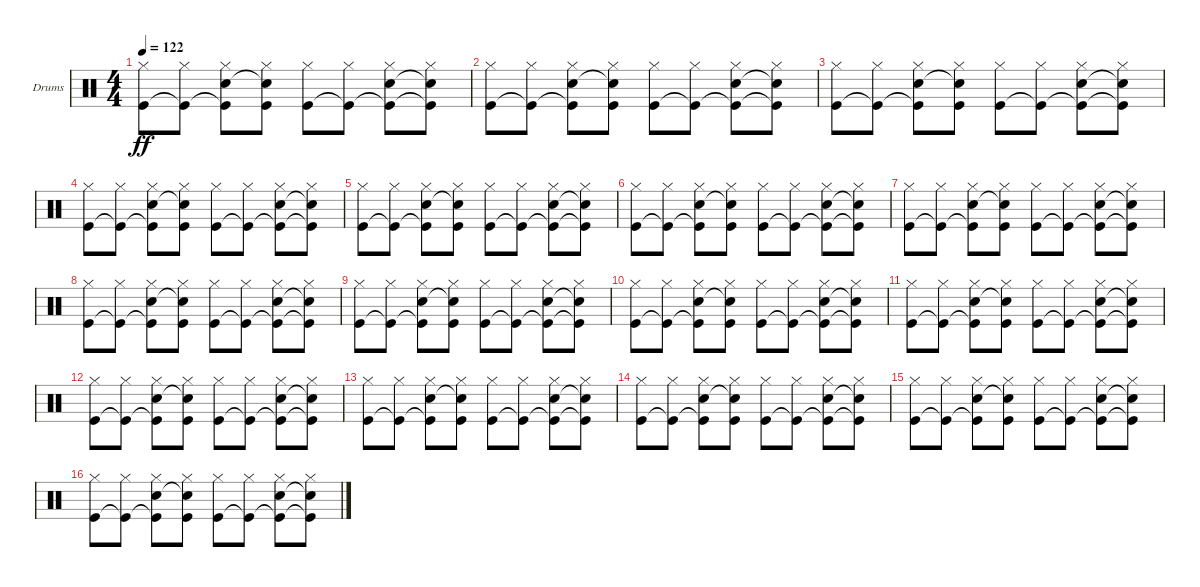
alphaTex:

\defaultSystemsLayout 4
\bracketExtendMode groupsimilarinstruments
\firstSystemTrackNameOrientation horizontal
\otherSystemsTrackNameOrientation horizontal
\track ("Drumkit" "Drums") {instrument percussion}
\staff {score}
\articulation defaults
\ts (4 4)
\tempo 122
\clef neutral
\ks c
("Hi-Hat (closed)" "Kick (hit)").8{dy ff} ("Hi-Hat (closed)" "Kick (hit)"{t}).8 ("Hi-Hat (closed)" "Kick (hit)"{t} "Snare (hit) 2").8 ("Hi-Hat (closed)" "Kick (hit)" "Snare (hit) 2"{t}).8 ("Hi-Hat (closed)" "Kick (hit)").8 ("Hi-Hat (closed)" "Kick (hit)"{t}).8 ("Hi-Hat (closed)" "Kick (hit)"{t} "Snare (hit) 2").8 ("Hi-Hat (closed)" "Kick (hit)"{t} "Snare (hit) 2"{t}).8 |
("Hi-Hat (closed)" "Kick (hit)").8 ("Hi-Hat (closed)" "Kick (hit)"{t}).8 ("Hi-Hat (closed)" "Kick (hit)"{t} "Snare (hit) 2").8 ("Hi-Hat (closed)" "Kick (hit)" "Snare (hit) 2"{t}).8 ("Hi-Hat (closed)" "Kick (hit)").8 ("Hi-Hat (closed)" "Kick (hit)"{t}).8 ("Hi-Hat (closed)" "Kick (hit)"{t} "Snare (hit) 2").8 ("Hi-Hat (closed)" "Kick (hit)"{t} "Snare (hit) 2"{t}).8 |
("Hi-Hat (closed)" "Kick (hit)").8 ("Hi-Hat (closed)" "Kick (hit)"{t}).8 ("Hi-Hat (closed)" "Kick (hit)"{t} "Snare (hit) 2").8 ("Hi-Hat (closed)" "Kick (hit)" "Snare (hit) 2"{t}).8 ("Hi-Hat (closed)" "Kick (hit)").8 ("Hi-Hat (closed)" "Kick (hit)"{t}).8 ("Hi-Hat (closed)" "Kick (hit)"{t} "Snare (hit) 2").8 ("Hi-Hat (closed)" "Kick (hit)"{t} "Snare (hit) 2"{t}).8 |
("Hi-Hat (closed)" "Kick (hit)").8 ("Hi-Hat (closed)" "Kick (hit)"{t}).8 ("Hi-Hat (closed)" "Kick (hit)"{t} "Snare (hit) 2").8 ("Hi-Hat (closed)" "Kick (hit)" "Snare (hit) 2"{t}).8 ("Hi-Hat (closed)" "Kick (hit)").8 ("Hi-Hat (closed)" "Kick (hit)"{t}).8 ("Hi-Hat (closed)" "Kick (hit)"{t} "Snare (hit) 2").8 ("Hi-Hat (closed)" "Kick (hit)"{t} "Snare (hit) 2"{t}).8 |
("Hi-Hat (closed)" "Kick (hit)").8 ("Hi-Hat (closed)" "Kick (hit)"{t}).8 ("Hi-Hat (closed)" "Kick (hit)"{t} "Snare (hit) 2").8 ("Hi-Hat (closed)" "Kick (hit)" "Snare (hit) 2"{t}).8 ("Hi-Hat (closed)" "Kick (hit)").8 ("Hi-Hat (closed)" "Kick (hit)"{t}).8 ("Hi-Hat (closed)" "Kick (hit)"{t} "Snare (hit) 2").8 ("Hi-Hat (closed)" "Kick (hit)"{t} "Snare (hit) 2"{t}).8 |
("Hi-Hat (closed)" "Kick (hit)").8 ("Hi-Hat (closed)" "Kick (hit)"{t}).8 ("Hi-Hat (closed)" "Kick (hit)"{t} "Snare (hit) 2").8 ("Hi-Hat (closed)" "Kick (hit)" "Snare (hit) 2"{t}).8 ("Hi-Hat (closed)" "Kick (hit)").8 ("Hi-Hat (closed)" "Kick (hit)"{t}).8 ("Hi-Hat (closed)" "Kick (hit)"{t} "Snare (hit) 2").8 ("Hi-Hat (closed)" "Kick (hit)"{t} "Snare (hit) 2"{t}).8 |
("Hi-Hat (closed)" "Kick (hit)").8 ("Hi-Hat (closed)" "Kick (hit)"{t}).8 ("Hi-Hat (closed)" "Kick (hit)"{t} "Snare (hit) 2").8 ("Hi-Hat (closed)" "Kick (hit)" "Snare (hit) 2"{t}).8 ("Hi-Hat (closed)" "Kick (hit)").8 ("Hi-Hat (closed)" "Kick (hit)"{t}).8 ("Hi-Hat (closed)" "Kick (hit)"{t} "Snare (hit) 2").8 ("Hi-Hat (closed)" "Kick (hit)"{t} "Snare (hit) 2"{t}).8 |
("Hi-Hat (closed)" "Kick (hit)").8 ("Hi-Hat (closed)" "Kick (hit)"{t}).8 ("Hi-Hat (closed)" "Kick (hit)"{t} "Snare (hit) 2").8 ("Hi-Hat (closed)" "Kick (hit)" "Snare (hit) 2"{t}).8 ("Hi-Hat (closed)" "Kick (hit)").8 ("Hi-Hat (closed)" "Kick (hit)"{t}).8 ("Hi-Hat (closed)" "Kick (hit)"{t} "Snare (hit) 2").8 ("Hi-Hat (closed)" "Kick (hit)"{t} "Snare (hit) 2"{t}).8 |
("Hi-Hat (closed)" "Kick (hit)").8 ("Hi-Hat (closed)" "Kick (hit)"{t}).8 ("Hi-Hat (closed)" "Kick (hit)"{t} "Snare (hit) 2").8 ("Hi-Hat (closed)" "Kick (hit)" "Snare (hit) 2"{t}).8 ("Hi-Hat (closed)" "Kick (hit)").8 ("Hi-Hat (closed)" "Kick (hit)"{t}).8 ("Hi-Hat (closed)" "Kick (hit)"{t} "Snare (hit) 2").8 ("Hi-Hat (closed)" "Kick (hit)"{t} "Snare (hit) 2"{t}).8 |
("Hi-Hat (closed)" "Kick (hit)").8 ("Hi-Hat (closed)" "Kick (hit)"{t}).8 ("Hi-Hat (closed)" "Kick (hit)"{t} "Snare (hit) 2").8 ("Hi-Hat (closed)" "Kick (hit)" "Snare (hit) 2"{t}).8 ("Hi-Hat (closed)" "Kick (hit)").8 ("Hi-Hat (closed)" "Kick (hit)"{t}).8 ("Hi-Hat (closed)" "Kick (hit)"{t} "Snare (hit) 2").8 ("Hi-Hat (closed)" "Kick (hit)"{t} "Snare (hit) 2"{t}).8 |
("Hi-Hat (closed)" "Kick (hit)").8 ("Hi-Hat (closed)" "Kick (hit)"{t}).8 ("Hi-Hat (closed)" "Kick (hit)"{t} "Snare (hit) 2").8 ("Hi-Hat (closed)" "Kick (hit)" "Snare (hit) 2"{t}).8 ("Hi-Hat (closed)" "Kick (hit)").8 ("Hi-Hat (closed)" "Kick (hit)"{t}).8 ("Hi-Hat (closed)" "Kick (hit)"{t} "Snare (hit) 2").8 ("Hi-Hat (closed)" "Kick (hit)"{t} "Snare (hit) 2"{t}).8 |
("Hi-Hat (closed)" "Kick (hit)").8 ("Hi-Hat (closed)" "Kick (hit)"{t}).8 ("Hi-Hat (closed)" "Kick (hit)"{t} "Snare (hit) 2").8 ("Hi-Hat (closed)" "Kick (hit)" "Snare (hit) 2"{t}).8 ("Hi-Hat (closed)" "Kick (hit)").8 ("Hi-Hat (closed)" "Kick (hit)"{t}).8 ("Hi-Hat (closed)" "Kick (hit)"{t} "Snare (hit) 2").8 ("Hi-Hat (closed)" "Kick (hit)"{t} "Snare (hit) 2"{t}).8 |
("Hi-Hat (closed)" "Kick (hit)").8 ("Hi-Hat (closed)" "Kick (hit)"{t}).8 ("Hi-Hat (closed)" "Kick (hit)"{t} "Snare (hit) 2").8 ("Hi-Hat (closed)" "Kick (hit)" "Snare (hit) 2"{t}).8 ("Hi-Hat (closed)" "Kick (hit)").8 ("Hi-Hat (closed)" "Kick (hit)"{t}).8 ("Hi-Hat (closed)" "Kick (hit)"{t} "Snare (hit) 2").8 ("Hi-Hat (closed)" "Kick (hit)"{t} "Snare (hit) 2"{t}).8 |
("Hi-Hat (closed)" "Kick (hit)").8 ("Hi-Hat (closed)" "Kick (hit)"{t}).8 ("Hi-Hat (closed)" "Kick (hit)"{t} "Snare (hit) 2").8 ("Hi-Hat (closed)" "Kick (hit)" "Snare (hit) 2"{t}).8 ("Hi-Hat (closed)" "Kick (hit)").8 ("Hi-Hat (closed)" "Kick (hit)"{t}).8 ("Hi-Hat (closed)" "Kick (hit)"{t} "Snare (hit) 2").8 ("Hi-Hat (closed)" "Kick (hit)"{t} "Snare (hit) 2"{t}).8 |
("Hi-Hat (closed)" "Kick (hit)").8 ("Hi-Hat (closed)" "Kick (hit)"{t}).8 ("Hi-Hat (closed)" "Kick (hit)"{t} "Snare (hit) 2").8 ("Hi-Hat (closed)" "Kick (hit)" "Snare (hit) 2"{t}).8 ("Hi-Hat (closed)" "Kick (hit)").8 ("Hi-Hat (closed)" "Kick (hit)"{t}).8 ("Hi-Hat (closed)" "Kick (hit)"{t} "Snare (hit) 2").8 ("Hi-Hat (closed)" "Kick (hit)"{t} "Snare (hit) 2"{t}).8 |
("Hi-Hat (closed)" "Kick (hit)").8 ("Hi-Hat (closed)" "Kick (hit)"{t}).8 ("Hi-Hat (closed)" "Kick (hit)"{t} "Snare (hit) 2").8 ("Hi-Hat (closed)" "Kick (hit)" "Snare (hit) 2"{t}).8 ("Hi-Hat (closed)" "Kick (hit)").8 ("Hi-Hat (closed)" "Kick (hit)"{t}).8 ("Hi-Hat (closed)" "Kick (hit)"{t} "Snare (hit) 2").8 ("Hi-Hat (closed)" "Kick (hit)"{t} "Snare (hit) 2"{t}).8
